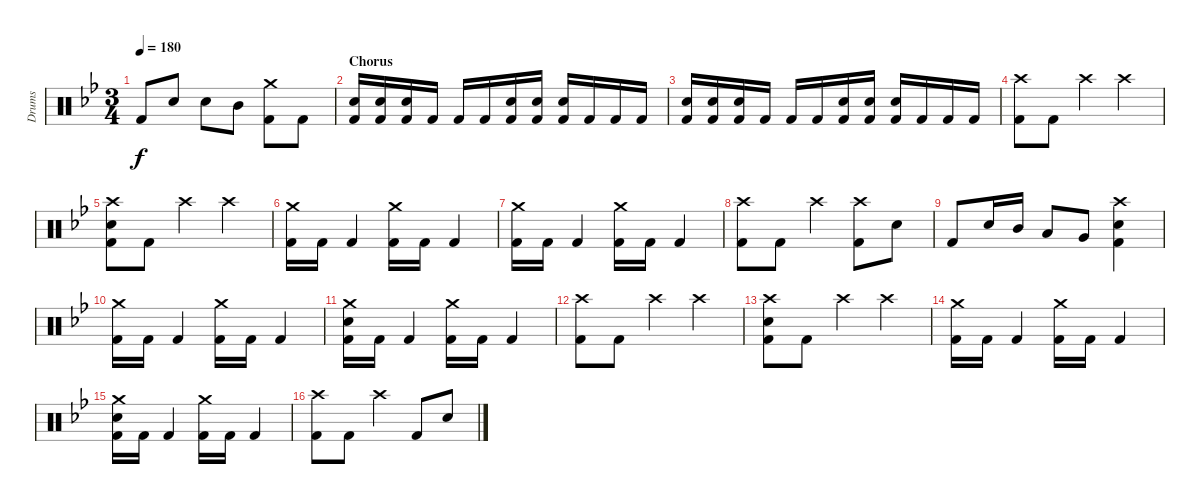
\bracketExtendMode groupsimilarinstruments
\track ("Drumkit" "Drums") {instrument percussion}
\staff {score}
\articulation defaults
\ts (3 4)
\tempo 180
\clef neutral
\ks bb "Kick (hit) 2"{acc forcenatural}.8{dy f} "Snare (hit) 2"{acc forcenatural}.8 "Snare (hit) 2"{acc forcenatural}.8 "Mid Tom (hit)"{acc forcenatural}.8
("Crash medium (hit)"{acc forcenatural} "Kick (hit) 2"{acc forcenatural}).8 "Kick (hit) 2"{acc forcenatural}.8 |
\section ("" "Chorus")
("Snare (hit) 2"{acc forcenatural} "Kick (hit) 2"{acc forcenatural}).16 ("Snare (hit) 2"{acc forcenatural} "Kick (hit) 2"{acc forcenatural}).16 ("Snare (hit) 2"{acc forcenatural} "Kick (hit) 2"{acc forcenatural}).16 "Kick (hit) 2"{acc forcenatural}.16 "Kick (hit) 2"{acc forcenatural}.16 "Kick (hit) 2"{acc forcenatural}.16 ("Snare (hit) 2"{acc forcenatural} "Kick (hit) 2"{acc forcenatural}).16 ("Snare (hit) 2"{acc forcenatural} "Kick (hit) 2"{acc forcenatural}).16 ("Snare (hit) 2"{acc forcenatural} "Kick (hit) 2"{acc forcenatural}).16 "Kick (hit) 2"{acc forcenatural}.16 "Kick (hit) 2"{acc forcenatural}.16 "Kick (hit) 2"{acc forcenatural}.16 |
("Snare (hit) 2"{acc forcenatural} "Kick (hit) 2"{acc forcenatural}).16 ("Snare (hit) 2"{acc forcenatural} "Kick (hit) 2"{acc forcenatural}).16 ("Snare (hit) 2"{acc forcenatural} "Kick (hit) 2"{acc forcenatural}).16 "Kick (hit) 2"{acc forcenatural}.16 "Kick (hit) 2"{acc forcenatural}.16 "Kick (hit) 2"{acc forcenatural}.16 ("Snare (hit) 2"{acc forcenatural} "Kick (hit) 2"{acc forcenatural}).16 ("Snare (hit) 2"{acc forcenatural} "Kick (hit) 2"{acc forcenatural}).16 ("Snare (hit) 2"{acc forcenatural} "Kick (hit) 2"{acc forcenatural}).16 "Kick (hit) 2"{acc forcenatural}.16 "Kick (hit) 2"{acc forcenatural}.16 "Kick (hit) 2"{acc forcenatural}.16 |
("Crash high (hit)"{acc forcenatural} "Kick (hit) 2"{acc forcenatural}).8 "Kick (hit) 2"{acc forcenatural}.8 "Crash high (hit)"{acc forcenatural}.4 "Crash high (hit)"{acc forcenatural}.4 |
("Crash high (hit)"{acc forcenatural} "Snare (hit) 2"{acc forcenatural} "Kick (hit) 2"{acc forcenatural}).8 "Kick (hit) 2"{acc forcenatural}.8 "Crash high (hit)"{acc forcenatural}.4 "Crash high (hit)"{acc forcenatural}.4 |
("Crash medium (hit)"{acc forcenatural} "Kick (hit) 2"{acc forcenatural}).16 "Kick (hit) 2"{acc forcenatural}.16 "Kick (hit) 2"{acc forcenatural}.4 ("Crash medium (hit)"{acc forcenatural} "Kick (hit) 2"{acc forcenatural}).16 "Kick (hit) 2"{acc forcenatural}.16 "Kick (hit) 2"{acc forcenatural}.4 |
("Crash medium (hit)"{acc forcenatural} "Kick (hit) 2"{acc forcenatural}).16 "Kick (hit) 2"{acc forcenatural}.16 "Kick (hit) 2"{acc forcenatural}.4 ("Crash medium (hit)"{acc forcenatural} "Kick (hit) 2"{acc forcenatural}).16 "Kick (hit) 2"{acc forcenatural}.16 "Kick (hit) 2"{acc forcenatural}.4 |
("Crash high (hit)"{acc forcenatural} "Kick (hit) 2"{acc forcenatural}).8 "Kick (hit) 2"{acc forcenatural}.8 "Crash high (hit)"{acc forcenatural}.4 ("Crash high (hit)"{acc forcenatural} "Kick (hit) 2"{acc forcenatural}).8 "Snare (hit) 2"{acc forcenatural}.8 |
"Kick (hit) 2"{acc forcenatural}.8 "Snare (hit) 2"{acc forcenatural}.16 "Mid Tom (hit)"{acc forcenatural}.16 "Low Tom (hit)"{acc forcenatural}.8 "Very Low Tom (hit)"{acc forcenatural}.8 ("Crash high (hit)"{acc forcenatural} "Snare (hit) 2"{acc forcenatural} "Kick (hit) 2"{acc forcenatural}).4 |
("Crash medium (hit)"{acc forcenatural} "Kick (hit) 2"{acc forcenatural}).16 "Kick (hit) 2"{acc forcenatural}.16 "Kick (hit) 2"{acc forcenatural}.4 ("Crash medium (hit)"{acc forcenatural} "Kick (hit) 2"{acc forcenatural}).16 "Kick (hit) 2"{acc forcenatural}.16 "Kick (hit) 2"{acc forcenatural}.4 |
("Crash medium (hit)"{acc forcenatural} "Snare (hit) 2"{acc forcenatural} "Kick (hit) 2"{acc forcenatural}).16 "Kick (hit) 2"{acc forcenatural}.16 "Kick (hit) 2"{acc forcenatural}.4 ("Crash medium (hit)"{acc forcenatural} "Kick (hit) 2"{acc forcenatural}).16 "Kick (hit) 2"{acc forcenatural}.16 "Kick (hit) 2"{acc forcenatural}.4 |
("Crash high (hit)"{acc forcenatural} "Kick (hit) 2"{acc forcenatural}).8 "Kick (hit) 2"{acc forcenatural}.8 "Crash high (hit)"{acc forcenatural}.4 "Crash high (hit)"{acc forcenatural}.4 |
("Crash high (hit)"{acc forcenatural} "Snare (hit) 2"{acc forcenatural} "Kick (hit) 2"{acc forcenatural}).8 "Kick (hit) 2"{acc forcenatural}.8 "Crash high (hit)"{acc forcenatural}.4 "Crash high (hit)"{acc forcenatural}.4 |
("Crash medium (hit)"{acc forcenatural} "Kick (hit) 2"{acc forcenatural}).16 "Kick (hit) 2"{acc forcenatural}.16 "Kick (hit) 2"{acc forcenatural}.4 ("Crash medium (hit)"{acc forcenatural} "Kick (hit) 2"{acc forcenatural}).16 "Kick (hit) 2"{acc forcenatural}.16 "Kick (hit) 2"{acc forcenatural}.4 |
("Crash medium (hit)"{acc forcenatural} "Snare (hit) 2"{acc forcenatural} "Kick (hit) 2"{acc forcenatural}).16 "Kick (hit) 2"{acc forcenatural}.16 "Kick (hit) 2"{acc forcenatural}.4 ("Crash medium (hit)"{acc forcenatural} "Kick (hit) 2"{acc forcenatural}).16 "Kick (hit) 2"{acc forcenatural}.16 "Kick (hit) 2"{acc forcenatural}.4 |
("Crash high (hit)"{acc forcenatural} "Kick (hit) 2"{acc forcenatural}).8 "Kick (hit) 2"{acc forcenatural}.8 "Crash high (hit)"{acc forcenatural}.4 "Kick (hit) 2"{acc forcenatural}.8 "Snare (hit) 2"{acc forcenatural}.8
